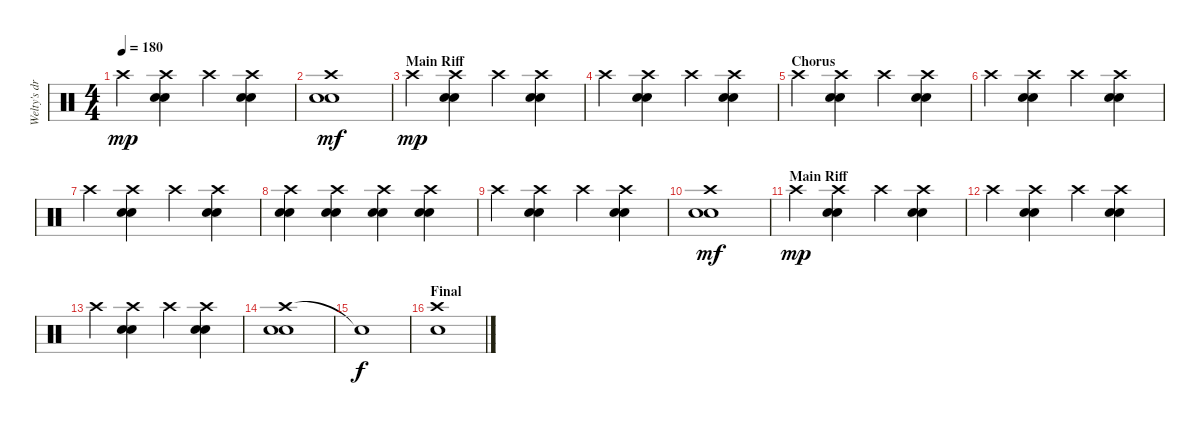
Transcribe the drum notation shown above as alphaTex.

\track ("Welty's drums" "Welty's dr") {instrument percussion}
\staff {score}
\articulation defaults
\ts (4 4)
\tempo 180
\clef neutral
\ks c "Crash high (hit)".4{dy mp}
("Crash high (hit)" "Electric Snare (hit)" "Electric Snare (hit)").4 "Crash high (hit)".4 ("Crash high (hit)" "Electric Snare (hit)" "Electric Snare (hit)").4 |
("Crash high (hit)" "Electric Snare (hit)" "Electric Snare (hit)").1{dy mf} |
\section ("" "Main Riff")
"Crash high (hit)".4{dy mp} ("Crash high (hit)" "Electric Snare (hit)" "Electric Snare (hit)").4 "Crash high (hit)".4 ("Crash high (hit)" "Electric Snare (hit)" "Electric Snare (hit)").4 |
"Crash high (hit)".4 ("Crash high (hit)" "Electric Snare (hit)" "Electric Snare (hit)").4 "Crash high (hit)".4 ("Crash high (hit)" "Electric Snare (hit)" "Electric Snare (hit)").4 |
\section ("" "Chorus")
"Crash high (hit)".4 ("Crash high (hit)" "Electric Snare (hit)" "Electric Snare (hit)").4 "Crash high (hit)".4 ("Crash high (hit)" "Electric Snare (hit)" "Electric Snare (hit)").4 |
"Crash high (hit)".4 ("Crash high (hit)" "Electric Snare (hit)" "Electric Snare (hit)").4 "Crash high (hit)".4 ("Crash high (hit)" "Electric Snare (hit)" "Electric Snare (hit)").4 |
"Crash high (hit)".4 ("Crash high (hit)" "Electric Snare (hit)" "Electric Snare (hit)").4 "Crash high (hit)".4 ("Crash high (hit)" "Electric Snare (hit)" "Electric Snare (hit)").4 |
("Crash high (hit)" "Electric Snare (hit)" "Electric Snare (hit)").4 ("Crash high (hit)" "Electric Snare (hit)" "Electric Snare (hit)").4 ("Crash high (hit)" "Electric Snare (hit)" "Electric Snare (hit)").4 ("Crash high (hit)" "Electric Snare (hit)" "Electric Snare (hit)").4 |
"Crash high (hit)".4 ("Crash high (hit)" "Electric Snare (hit)" "Electric Snare (hit)").4 "Crash high (hit)".4 ("Crash high (hit)" "Electric Snare (hit)" "Electric Snare (hit)").4 |
("Crash high (hit)" "Electric Snare (hit)" "Electric Snare (hit)").1{dy mf} |
\section ("" "Main Riff")
"Crash high (hit)".4{dy mp} ("Crash high (hit)" "Electric Snare (hit)" "Electric Snare (hit)").4 "Crash high (hit)".4 ("Crash high (hit)" "Electric Snare (hit)" "Electric Snare (hit)").4 |
"Crash high (hit)".4 ("Crash high (hit)" "Electric Snare (hit)" "Electric Snare (hit)").4 "Crash high (hit)".4 ("Crash high (hit)" "Electric Snare (hit)" "Electric Snare (hit)").4 |
"Crash high (hit)".4 ("Crash high (hit)" "Electric Snare (hit)" "Electric Snare (hit)").4 "Crash high (hit)".4 ("Crash high (hit)" "Electric Snare (hit)" "Electric Snare (hit)").4 |
("Crash high (hit)" "Electric Snare (hit)" "Electric Snare (hit)").1 |
"Snare (hit)"{t}.1{dy f} |
\section ("" "Final")
("Crash high (hit)" "Electric Snare (hit)").1
